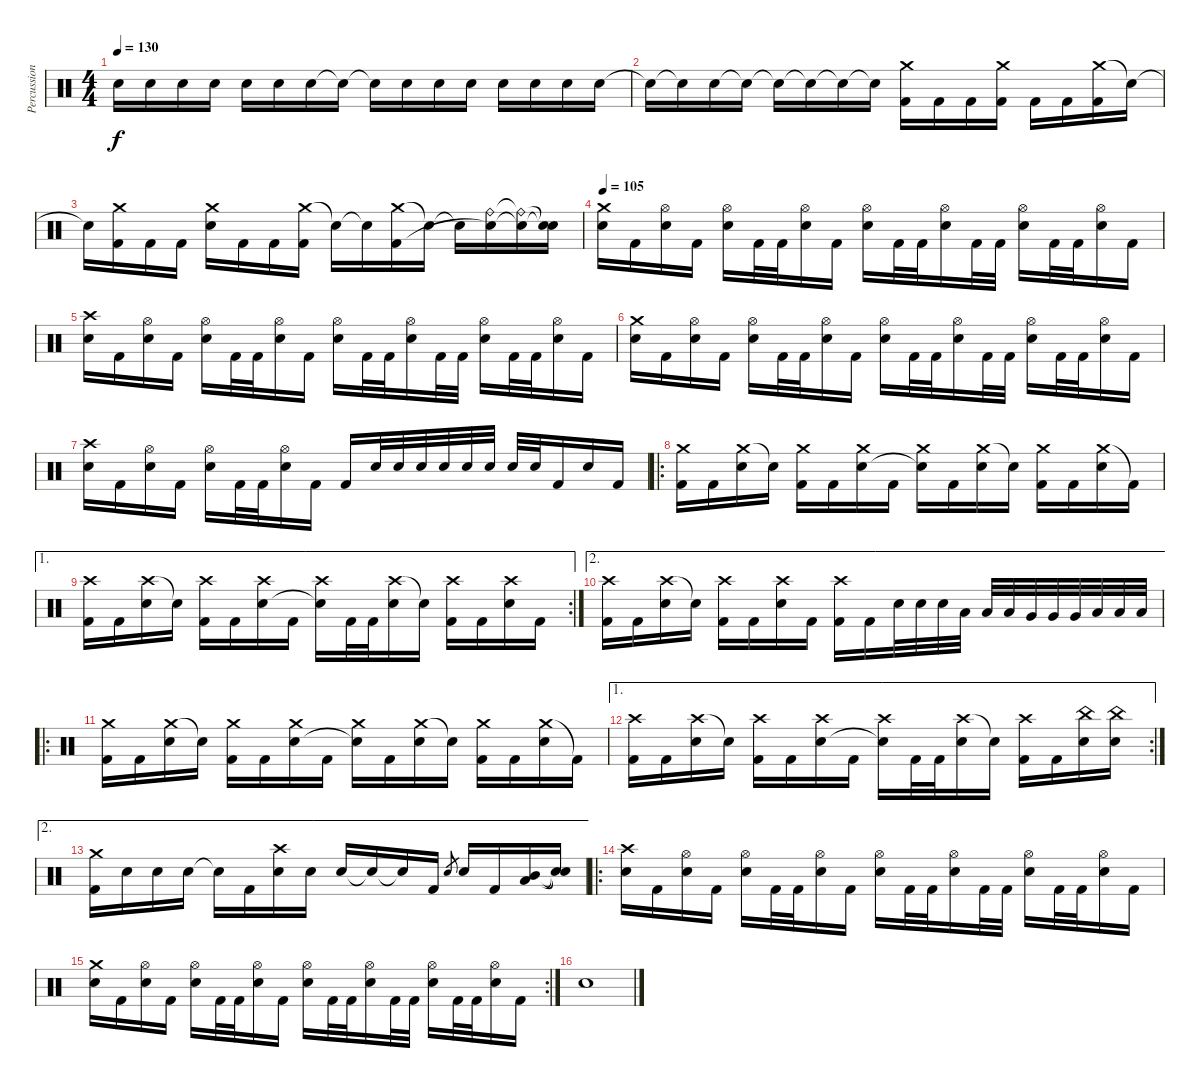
\track ("Percussion" "Percussion") {instrument percussion}
\staff {score}
\articulation defaults
\ts (4 4)
\tempo 130
\clef neutral
\ks c "Electric Snare (hit)".16{dy f} "Electric Snare (hit)".16 "Electric Snare (hit)".16 "Electric Snare (hit)".16 "Electric Snare (hit)".16 "Electric Snare (hit)".16 "Electric Snare (hit)".16 "Snare (hit)"{t}.16 "Electric Snare (hit)"{t}.16 "Electric Snare (hit)".16 "Electric Snare (hit)".16 "Electric Snare (hit)".16 "Electric Snare (hit)".16 "Electric Snare (hit)".16 "Electric Snare (hit)".16 "Electric Snare (hit)".16
|
"Electric Snare (hit)"{t}.16 "Electric Snare (hit)"{t}.16 "Electric Snare (hit)".16 "Snare (hit)"{t}.16 "Snare (hit)"{t}.16 "Snare (hit)"{t}.16 "Snare (hit)"{t}.16 "Snare (hit)"{t}.16 ("Crash medium (hit)" "Kick (hit) 2").16 "Kick (hit) 2".16 "Kick (hit) 2".16 ("Crash medium (hit)" "Kick (hit) 2").16 "Kick (hit) 2".16 "Kick (hit) 2".16 ("Crash medium (hit)" "Kick (hit) 2").16 "Snare (hit)"{t}.16 |
"Snare (hit)"{t}.16 ("Crash medium (hit)" "Kick (hit) 2").16 "Kick (hit) 2".16 "Kick (hit) 2".16 ("Crash medium (hit)" "Electric Snare (hit)").16 "Kick (hit) 2".16 "Kick (hit) 2".16 ("Crash medium (hit)" "Kick (hit) 2").16 "Snare (hit)"{t}.16 "Snare (hit)"{t}.16 ("Crash medium (hit)" "Kick (hit) 2").16 "Snare (hit)"{t}.16 "Snare (hit)"{t}.16 ("Ride (bell)" "Snare (hit)"{t}).16 ("Ride (bell)"{t} "Snare (hit)"{t}).16 ("Snare (hit)"{t} "Snare (hit)"{t}).16 |
\tempo 105
("Crash medium (hit)" "Electric Snare (hit)").16 "Kick (hit) 2".16 ("Hi-Hat (open)" "Electric Snare (hit)").16 "Kick (hit) 2".16 ("Hi-Hat (open)" "Electric Snare (hit)").16 "Kick (hit) 2".32 "Kick (hit) 2".32 ("Hi-Hat (open)" "Electric Snare (hit)").16 "Kick (hit) 2".16 ("Hi-Hat (open)" "Electric Snare (hit)").16 "Kick (hit) 2".32 "Kick (hit) 2".32 ("Hi-Hat (open)" "Electric Snare (hit)").16 "Kick (hit) 2".32 "Kick (hit) 2".32 ("Hi-Hat (open)" "Electric Snare (hit)").16 "Kick (hit) 2".32 "Kick (hit) 2".32 ("Hi-Hat (open)" "Electric Snare (hit)").16 "Kick (hit) 2".16 |
("Crash high (hit)" "Electric Snare (hit)").16 "Kick (hit) 2".16 ("Hi-Hat (open)" "Electric Snare (hit)").16 "Kick (hit) 2".16 ("Hi-Hat (open)" "Electric Snare (hit)").16 "Kick (hit) 2".32 "Kick (hit) 2".32 ("Hi-Hat (open)" "Electric Snare (hit)").16 "Kick (hit) 2".16 ("Hi-Hat (open)" "Electric Snare (hit)").16 "Kick (hit) 2".32 "Kick (hit) 2".32 ("Hi-Hat (open)" "Electric Snare (hit)").16 "Kick (hit) 2".32 "Kick (hit) 2".32 ("Hi-Hat (open)" "Electric Snare (hit)").16 "Kick (hit) 2".32 "Kick (hit) 2".32 ("Hi-Hat (open)" "Electric Snare (hit)").16 "Kick (hit) 2".16 |
("Crash medium (hit)" "Electric Snare (hit)").16 "Kick (hit) 2".16 ("Hi-Hat (open)" "Electric Snare (hit)").16 "Kick (hit) 2".16 ("Hi-Hat (open)" "Electric Snare (hit)").16 "Kick (hit) 2".32 "Kick (hit) 2".32 ("Hi-Hat (open)" "Electric Snare (hit)").16 "Kick (hit) 2".16 ("Hi-Hat (open)" "Electric Snare (hit)").16 "Kick (hit) 2".32 "Kick (hit) 2".32 ("Hi-Hat (open)" "Electric Snare (hit)").16 "Kick (hit) 2".32 "Kick (hit) 2".32 ("Hi-Hat (open)" "Electric Snare (hit)").16 "Kick (hit) 2".32 "Kick (hit) 2".32 ("Hi-Hat (open)" "Electric Snare (hit)").16 "Kick (hit) 2".16 |
("Crash high (hit)" "Electric Snare (hit)").16 "Kick (hit) 2".16 ("Hi-Hat (open)" "Electric Snare (hit)").16 "Kick (hit) 2".16 ("Hi-Hat (open)" "Electric Snare (hit)").16 "Kick (hit) 2".32 "Kick (hit) 2".32 ("Hi-Hat (open)" "Electric Snare (hit)").16 "Kick (hit) 2".16 "Kick (hit) 2".16 "Electric Snare (hit)".32 "Electric Snare (hit)".32 "Electric Snare (hit)".32 "Electric Snare (hit)".32 "Electric Snare (hit)".32 "Electric Snare (hit)".32 "Electric Snare (hit)".32 "Electric Snare (hit)".32 "Kick (hit) 2".16 "Electric Snare (hit)".16 "Kick (hit) 2".16 |
\ro
("Crash medium (hit)" "Kick (hit) 2").16 "Kick (hit) 2".16 ("Crash medium (hit)" "Electric Snare (hit)").16 "Snare (hit)"{t}.16 ("Crash medium (hit)" "Kick (hit) 2").16 "Kick (hit) 2".16 ("Crash medium (hit)" "Electric Snare (hit)").16 "Kick (hit) 2".16 ("Crash medium (hit)" "Snare (hit)"{t}).16 "Kick (hit) 2".16 ("Crash medium (hit)" "Electric Snare (hit)").16 "Snare (hit)"{t}.16 ("Crash medium (hit)" "Kick (hit) 2").16 "Kick (hit) 2".16 ("Crash medium (hit)" "Electric Snare (hit)").16 "Kick (hit) 2"{t}.16 |
\ae 1
\rc 2
("Crash high (hit)" "Kick (hit) 2").16 "Kick (hit) 2".16 ("Crash high (hit)" "Electric Snare (hit)").16 "Snare (hit)"{t}.16 ("Crash high (hit)" "Kick (hit) 2").16 "Kick (hit) 2".16 ("Crash high (hit)" "Electric Snare (hit)").16 "Kick (hit) 2".16 ("Crash high (hit)" "Snare (hit)"{t}).16 "Kick (hit) 2".32 "Kick (hit) 2".32 ("Crash high (hit)" "Electric Snare (hit)").16 "Snare (hit)"{t}.16 ("Crash high (hit)" "Kick (hit) 2").16 "Kick (hit) 2".16 ("Crash high (hit)" "Electric Snare (hit)").16 "Kick (hit) 2".16 |
\ae 2
("Crash high (hit)" "Kick (hit) 2").16 "Kick (hit) 2".16 ("Crash high (hit)" "Electric Snare (hit)").16 "Snare (hit)"{t}.16 ("Crash high (hit)" "Kick (hit) 2").16 "Kick (hit) 2".16 ("Crash high (hit)" "Electric Snare (hit)").16 "Kick (hit) 2".16 ("Crash high (hit)" "Kick (hit) 2").16 "Kick (hit) 2".16 "Electric Snare (hit)".32 "Electric Snare (hit)".32 "Electric Snare (hit)".32 "Low Tom (hit)".32 "Low Tom (hit)".32 "Low Tom (hit)".32 "Very Low Tom (hit)".32 "Very Low Tom (hit)".32 "Very Low Tom (hit)".32 "Low Floor Tom (hit)".32 "Low Floor Tom (hit)".32 "Low Floor Tom (hit)".32 |
\ro
("Crash medium (hit)" "Kick (hit) 2").16 "Kick (hit) 2".16 ("Crash medium (hit)" "Electric Snare (hit)").16 "Snare (hit)"{t}.16 ("Crash medium (hit)" "Kick (hit) 2").16 "Kick (hit) 2".16 ("Crash medium (hit)" "Electric Snare (hit)").16 "Kick (hit) 2".16 ("Crash medium (hit)" "Snare (hit)"{t}).16 "Kick (hit) 2".16 ("Crash medium (hit)" "Electric Snare (hit)").16 "Snare (hit)"{t}.16 ("Crash medium (hit)" "Kick (hit) 2").16 "Kick (hit) 2".16 ("Crash medium (hit)" "Electric Snare (hit)").16 "Kick (hit) 2"{t}.16 |
\ae 1
\rc 2
("Crash high (hit)" "Kick (hit) 2").16 "Kick (hit) 2".16 ("Crash high (hit)" "Electric Snare (hit)").16 "Snare (hit)"{t}.16 ("Crash high (hit)" "Kick (hit) 2").16 "Kick (hit) 2".16 ("Crash high (hit)" "Electric Snare (hit)").16 "Kick (hit) 2".16 ("Crash high (hit)" "Snare (hit)"{t}).16 "Kick (hit) 2".32 "Kick (hit) 2".32 ("Crash high (hit)" "Electric Snare (hit)").16 "Snare (hit)"{t}.16 ("Crash high (hit)" "Kick (hit) 2").16 "Kick (hit) 2".16 ("China (hit)" "Electric Snare (hit)").16 ("China (hit)" "Electric Snare (hit)").16 |
\ae 2
("Crash medium (hit)" "Kick (hit) 2").16 "Electric Snare (hit)".16 "Electric Snare (hit)".16 "Electric Snare (hit)".16 "Snare (hit)"{t}.16 "Kick (hit) 2".16 ("Crash high (hit)" "Electric Snare (hit)").16 "Electric Snare (hit)".16 "Electric Snare (hit)".16 "Snare (hit)"{t}.16 "Snare (hit)"{t}.16 "Kick (hit) 2".16 "Electric Snare (hit)".8{gr} "Electric Snare (hit)".16 "Kick (hit) 2".16 ("Mid Tom (hit)" "Low Tom (hit)").16 ("Snare (hit)"{t} "Snare (hit)"{t}).16 |
\ro
("Crash high (hit)" "Electric Snare (hit)").16 "Kick (hit) 2".16 ("Hi-Hat (open)" "Electric Snare (hit)").16 "Kick (hit) 2".16 ("Hi-Hat (open)" "Electric Snare (hit)").16 "Kick (hit) 2".32 "Kick (hit) 2".32 ("Hi-Hat (open)" "Electric Snare (hit)").16 "Kick (hit) 2".16 ("Hi-Hat (open)" "Electric Snare (hit)").16 "Kick (hit) 2".32 "Kick (hit) 2".32 ("Hi-Hat (open)" "Electric Snare (hit)").16 "Kick (hit) 2".32 "Kick (hit) 2".32 ("Hi-Hat (open)" "Electric Snare (hit)").16 "Kick (hit) 2".32 "Kick (hit) 2".32 ("Hi-Hat (open)" "Electric Snare (hit)").16 "Kick (hit) 2".16 |
\rc 2
("Crash medium (hit)" "Electric Snare (hit)").16 "Kick (hit) 2".16 ("Hi-Hat (open)" "Electric Snare (hit)").16 "Kick (hit) 2".16 ("Hi-Hat (open)" "Electric Snare (hit)").16 "Kick (hit) 2".32 "Kick (hit) 2".32 ("Hi-Hat (open)" "Electric Snare (hit)").16 "Kick (hit) 2".16 ("Hi-Hat (open)" "Electric Snare (hit)").16 "Kick (hit) 2".32 "Kick (hit) 2".32 ("Hi-Hat (open)" "Electric Snare (hit)").16 "Kick (hit) 2".32 "Kick (hit) 2".32 ("Hi-Hat (open)" "Electric Snare (hit)").16 "Kick (hit) 2".32 "Kick (hit) 2".32 ("Hi-Hat (open)" "Electric Snare (hit)").16 "Kick (hit) 2".16 |
"Electric Snare (hit)".1
